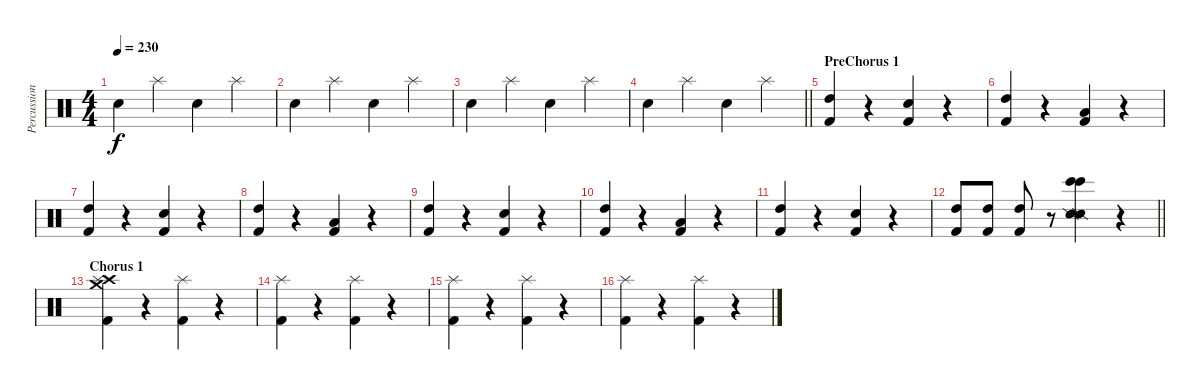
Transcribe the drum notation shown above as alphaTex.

\track ("Percussion" "Percussion") {instrument percussion}
\staff {score}
\articulation defaults
\ts (4 4)
\tempo 230
\clef neutral
\ks c "Snare (hit) 2".4{dy f} "Splash (hit)".4 "Snare (hit) 2".4 "Splash (hit)".4
|
"Snare (hit) 2".4 "Splash (hit)".4 "Snare (hit) 2".4 "Splash (hit)".4 |
"Snare (hit) 2".4 "Splash (hit)".4 "Snare (hit) 2".4 "Splash (hit)".4 |
\barLineRight lightlight "Snare (hit) 2".4 "Splash (hit)".4 "Snare (hit) 2".4 "Splash (hit)".4
|
\section ("" "PreChorus 1")
("Kick (hit) 2" "High Tom (hit)").4 r.4 ("Kick (hit) 2" "Snare (hit) 2").4 r.4 |
("High Tom (hit)" "Kick (hit) 2").4 r.4 ("Low Floor Tom (hit)" "Kick (hit) 2").4 r.4 |
("Kick (hit) 2" "High Tom (hit)").4 r.4 ("Kick (hit) 2" "Snare (hit) 2").4 r.4 |
("High Tom (hit)" "Kick (hit) 2").4 r.4 ("Low Floor Tom (hit)" "Kick (hit) 2").4 r.4 |
("Kick (hit) 2" "High Tom (hit)").4 r.4 ("Kick (hit) 2" "Snare (hit) 2").4 r.4 |
("High Tom (hit)" "Kick (hit) 2").4 r.4 ("Low Floor Tom (hit)" "Kick (hit) 2").4 r.4 |
("Kick (hit) 2" "High Tom (hit)").4 r.4 ("Kick (hit) 2" "Snare (hit) 2").4 r.4 |
\barLineRight lightlight
("High Tom (hit)" "Kick (hit) 2").8 ("High Tom (hit)" "Kick (hit) 2").8 ("High Tom (hit)" "Kick (hit) 2").8 r.8 ("Snare (side stick) 2" "Bongo High (hit)" "Snare (side stick) 2" "Bongo High (hit)").4 r.4 |
\section ("" "Chorus 1")
("Crash medium (hit)" "Crash high (hit)" "Kick (hit) 2" "Splash (hit)").4 r.4 ("Kick (hit) 2" "Splash (hit)").4 r.4 |
("Kick (hit) 2" "Splash (hit)").4 r.4 ("Kick (hit) 2" "Splash (hit)").4 r.4 |
("Kick (hit) 2" "Splash (hit)").4 r.4 ("Kick (hit) 2" "Splash (hit)").4 r.4 |
("Kick (hit) 2" "Splash (hit)").4 r.4 ("Kick (hit) 2" "Splash (hit)").4 r.4
